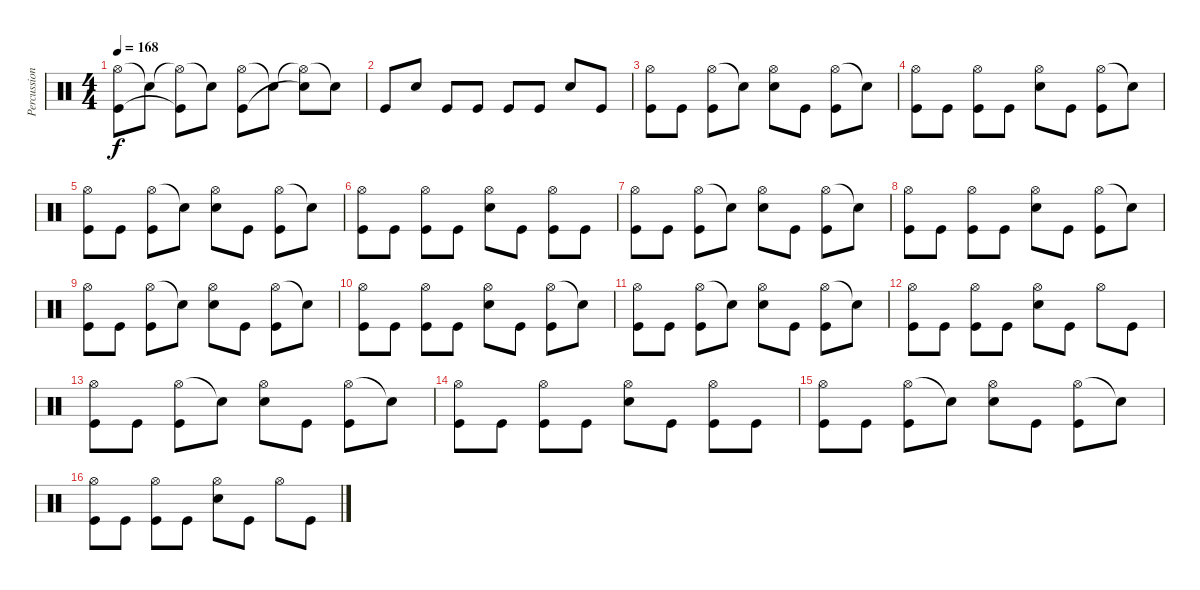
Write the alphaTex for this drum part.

\track ("Percussions" "Percussion") {instrument percussion}
\staff {score}
\articulation defaults
\ts (4 4)
\tempo 168
\clef neutral
\ks c
("Hi-Hat (open)" "Kick (hit)").8{dy f} "Snare (hit)"{t}.8 ("Hi-Hat (open)"{t} "Kick (hit)"{t}).8 "Snare (hit)"{t}.8 ("Hi-Hat (open)" "Kick (hit)").8 "Snare (hit)"{t}.8 ("Hi-Hat (open)"{t} "Snare (hit) 2"{t}).8 "Snare (hit)"{t}.8 |
"Kick (hit)".8 "Snare (hit) 2".8 "Kick (hit)".8 "Kick (hit)".8 "Kick (hit)".8 "Kick (hit)".8 "Snare (hit) 2".8 "Kick (hit)".8 |
("Hi-Hat (open)" "Kick (hit)").8 "Kick (hit)".8 ("Hi-Hat (open)" "Kick (hit)").8 "Snare (hit)"{t}.8 ("Hi-Hat (open)" "Snare (hit) 2").8 "Kick (hit)".8 ("Hi-Hat (open)" "Kick (hit)").8 "Snare (hit)"{t}.8 |
("Hi-Hat (open)" "Kick (hit)").8 "Kick (hit)".8 ("Hi-Hat (open)" "Kick (hit)").8 "Kick (hit)".8 ("Hi-Hat (open)" "Snare (hit) 2").8 "Kick (hit)".8 ("Hi-Hat (open)" "Kick (hit)").8 "Snare (hit)"{t}.8 |
("Hi-Hat (open)" "Kick (hit)").8 "Kick (hit)".8 ("Hi-Hat (open)" "Kick (hit)").8 "Snare (hit)"{t}.8 ("Hi-Hat (open)" "Snare (hit) 2").8 "Kick (hit)".8 ("Hi-Hat (open)" "Kick (hit)").8 "Snare (hit)"{t}.8 |
("Hi-Hat (open)" "Kick (hit)").8 "Kick (hit)".8 ("Hi-Hat (open)" "Kick (hit)").8 "Kick (hit)".8 ("Hi-Hat (open)" "Snare (hit) 2").8 "Kick (hit)".8 ("Hi-Hat (open)" "Kick (hit)").8 "Kick (hit)".8 |
("Hi-Hat (open)" "Kick (hit)").8 "Kick (hit)".8 ("Hi-Hat (open)" "Kick (hit)").8 "Snare (hit)"{t}.8 ("Hi-Hat (open)" "Snare (hit) 2").8 "Kick (hit)".8 ("Hi-Hat (open)" "Kick (hit)").8 "Snare (hit)"{t}.8 |
("Hi-Hat (open)" "Kick (hit)").8 "Kick (hit)".8 ("Hi-Hat (open)" "Kick (hit)").8 "Kick (hit)".8 ("Hi-Hat (open)" "Snare (hit) 2").8 "Kick (hit)".8 ("Hi-Hat (open)" "Kick (hit)").8 "Snare (hit)"{t}.8 |
("Hi-Hat (open)" "Kick (hit)").8 "Kick (hit)".8 ("Hi-Hat (open)" "Kick (hit)").8 "Snare (hit)"{t}.8 ("Hi-Hat (open)" "Snare (hit) 2").8 "Kick (hit)".8 ("Hi-Hat (open)" "Kick (hit)").8 "Snare (hit)"{t}.8 |
("Hi-Hat (open)" "Kick (hit)").8 "Kick (hit)".8 ("Hi-Hat (open)" "Kick (hit)").8 "Kick (hit)".8 ("Hi-Hat (open)" "Snare (hit) 2").8 "Kick (hit)".8 ("Hi-Hat (open)" "Kick (hit)").8 "Snare (hit)"{t}.8 |
("Hi-Hat (open)" "Kick (hit)").8 "Kick (hit)".8 ("Hi-Hat (open)" "Kick (hit)").8 "Snare (hit)"{t}.8 ("Hi-Hat (open)" "Snare (hit) 2").8 "Kick (hit)".8 ("Hi-Hat (open)" "Kick (hit)").8 "Snare (hit)"{t}.8 |
("Hi-Hat (open)" "Kick (hit)").8 "Kick (hit)".8 ("Hi-Hat (open)" "Kick (hit)").8 "Kick (hit)".8 ("Hi-Hat (open)" "Snare (hit) 2").8 "Kick (hit)".8 "Hi-Hat (open)".8 "Kick (hit)".8 |
("Hi-Hat (open)" "Kick (hit)").8 "Kick (hit)".8 ("Hi-Hat (open)" "Kick (hit)").8 "Snare (hit)"{t}.8 ("Hi-Hat (open)" "Snare (hit) 2").8 "Kick (hit)".8 ("Hi-Hat (open)" "Kick (hit)").8 "Snare (hit)"{t}.8 |
("Hi-Hat (open)" "Kick (hit)").8 "Kick (hit)".8 ("Hi-Hat (open)" "Kick (hit)").8 "Kick (hit)".8 ("Hi-Hat (open)" "Snare (hit) 2").8 "Kick (hit)".8 ("Hi-Hat (open)" "Kick (hit)").8 "Kick (hit)".8 |
("Hi-Hat (open)" "Kick (hit)").8 "Kick (hit)".8 ("Hi-Hat (open)" "Kick (hit)").8 "Snare (hit)"{t}.8 ("Hi-Hat (open)" "Snare (hit) 2").8 "Kick (hit)".8 ("Hi-Hat (open)" "Kick (hit)").8 "Snare (hit)"{t}.8 |
("Hi-Hat (open)" "Kick (hit)").8 "Kick (hit)".8 ("Hi-Hat (open)" "Kick (hit)").8 "Kick (hit)".8 ("Hi-Hat (open)" "Snare (hit) 2").8 "Kick (hit)".8 "Hi-Hat (open)".8 "Kick (hit)".8
